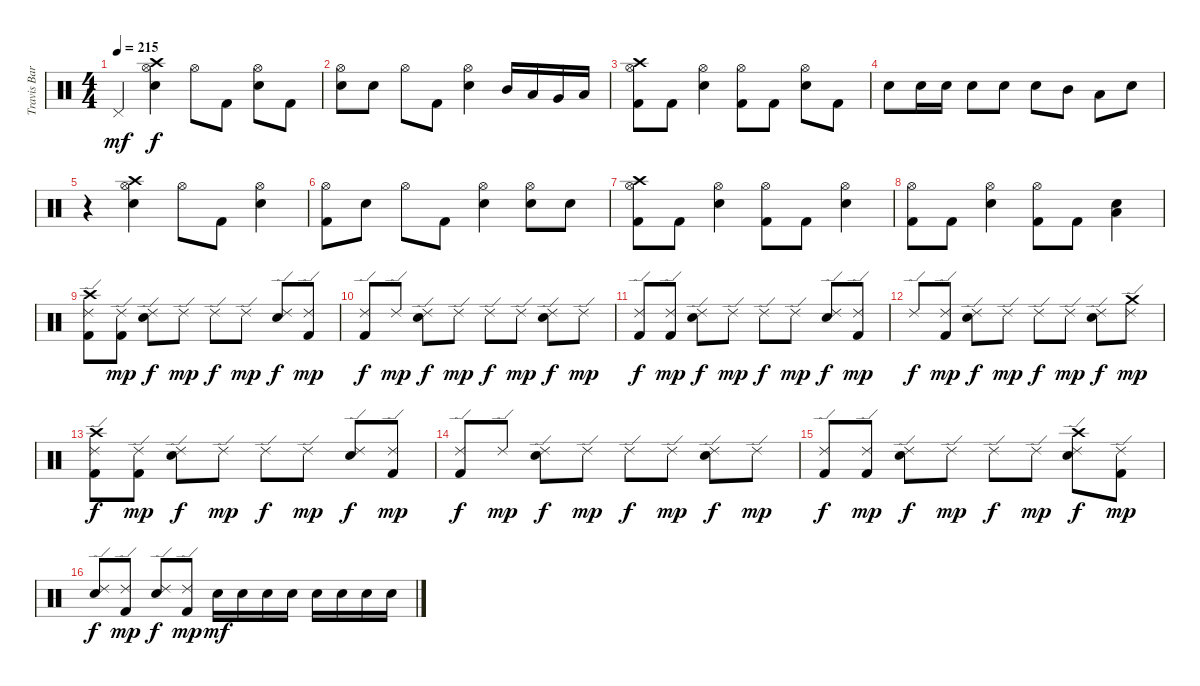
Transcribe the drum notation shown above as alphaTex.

\track ("Travis Barker" "Travis Bar") {instrument percussion}
\staff {score}
\articulation defaults
\ts (4 4)
\tempo 215
\clef neutral
\ks c "Pedal Hi-Hat (hit)".4{dy mf}
("Crash high (hit)" "Hi-Hat (open)" "Snare (hit) 2").4{dy f} "Hi-Hat (open)".8 "Kick (hit) 2".8 ("Hi-Hat (open)" "Snare (hit) 2").8 "Kick (hit) 2".8 |
("Hi-Hat (open)" "Snare (hit) 2").8 "Snare (hit) 2".8 "Hi-Hat (open)".8 "Kick (hit) 2".8 ("Hi-Hat (open)" "Snare (hit) 2").4 "Mid Tom (hit)".16 "Low Tom (hit)".16 "Very Low Tom (hit)".16 "Low Floor Tom (hit)".16 |
("Crash high (hit)" "Hi-Hat (open)" "Kick (hit) 2").8 "Kick (hit) 2".8 ("Hi-Hat (open)" "Snare (hit) 2").4 ("Hi-Hat (open)" "Kick (hit) 2").8 "Kick (hit) 2".8 ("Hi-Hat (open)" "Snare (hit) 2").8 "Kick (hit) 2".8 |
"Snare (hit) 2".8 "Snare (hit) 2".16 "Snare (hit) 2".16 "Snare (hit) 2".8 "Snare (hit) 2".8 "Snare (hit) 2".8 "Mid Tom (hit)".8 "Low Tom (hit)".8 "Snare (hit) 2".8 |
r.4 ("Crash high (hit)" "Hi-Hat (open)" "Snare (hit) 2").4 "Hi-Hat (open)".8 "Kick (hit) 2".8 ("Hi-Hat (open)" "Snare (hit) 2").4 |
("Hi-Hat (open)" "Kick (hit) 2").8 "Snare (hit) 2".8 "Hi-Hat (open)".8 "Kick (hit) 2".8 ("Hi-Hat (open)" "Snare (hit) 2").4 ("Hi-Hat (open)" "Snare (hit) 2").8 "Snare (hit) 2".8 |
("Crash high (hit)" "Hi-Hat (open)" "Kick (hit) 2").8 "Kick (hit) 2".8 ("Hi-Hat (open)" "Snare (hit) 2").4 ("Hi-Hat (open)" "Kick (hit) 2").8 "Kick (hit) 2".8 ("Hi-Hat (open)" "Snare (hit) 2").4 |
("Hi-Hat (open)" "Kick (hit) 2").8 "Kick (hit) 2".8 ("Hi-Hat (open)" "Snare (hit) 2").4 ("Hi-Hat (open)" "Kick (hit) 2").8 "Kick (hit) 2".8 ("Low Tom (hit)" "Snare (hit) 2").4 |
("Crash high (hit)" "Ride (edge) 2" "Kick (hit) 2").8 ("Ride (edge) 2" "Kick (hit) 2").8{dy mp} ("Ride (edge) 2" "Snare (hit) 2").8{dy f} "Ride (edge) 2".8{dy mp} "Ride (edge) 2".8{dy f} "Ride (edge) 2".8{dy mp} ("Ride (edge) 2" "Snare (hit) 2").8{dy f} ("Ride (edge) 2" "Kick (hit) 2").8{dy mp} |
("Ride (edge) 2" "Kick (hit) 2").8{dy f} "Ride (edge) 2".8{dy mp} ("Ride (edge) 2" "Snare (hit) 2").8{dy f} "Ride (edge) 2".8{dy mp} "Ride (edge) 2".8{dy f} "Ride (edge) 2".8{dy mp} ("Ride (edge) 2" "Snare (hit) 2").8{dy f} "Ride (edge) 2".8{dy mp} |
("Ride (edge) 2" "Kick (hit) 2").8{dy f} ("Ride (edge) 2" "Kick (hit) 2").8{dy mp} ("Ride (edge) 2" "Snare (hit) 2").8{dy f} "Ride (edge) 2".8{dy mp} "Ride (edge) 2".8{dy f} "Ride (edge) 2".8{dy mp} ("Ride (edge) 2" "Snare (hit) 2").8{dy f} ("Ride (edge) 2" "Kick (hit) 2").8{dy mp} |
"Ride (edge) 2".8{dy f} ("Ride (edge) 2" "Kick (hit) 2").8{dy mp} ("Ride (edge) 2" "Snare (hit) 2").8{dy f} "Ride (edge) 2".8{dy mp} "Ride (edge) 2".8{dy f} "Ride (edge) 2".8{dy mp} ("Ride (edge) 2" "Snare (hit) 2").8{dy f} ("Crash medium (hit)" "Ride (edge) 2").8{dy mp} |
("Crash high (hit)" "Ride (edge) 2" "Kick (hit) 2").8{dy f} ("Ride (edge) 2" "Kick (hit) 2").8{dy mp} ("Ride (edge) 2" "Snare (hit) 2").8{dy f} "Ride (edge) 2".8{dy mp} "Ride (edge) 2".8{dy f} "Ride (edge) 2".8{dy mp} ("Ride (edge) 2" "Snare (hit) 2").8{dy f} ("Ride (edge) 2" "Kick (hit) 2").8{dy mp} |
("Ride (edge) 2" "Kick (hit) 2").8{dy f} "Ride (edge) 2".8{dy mp} ("Ride (edge) 2" "Snare (hit) 2").8{dy f} "Ride (edge) 2".8{dy mp} "Ride (edge) 2".8{dy f} "Ride (edge) 2".8{dy mp} ("Ride (edge) 2" "Snare (hit) 2").8{dy f} "Ride (edge) 2".8{dy mp} |
("Ride (edge) 2" "Kick (hit) 2").8{dy f} ("Ride (edge) 2" "Kick (hit) 2").8{dy mp} ("Ride (edge) 2" "Snare (hit) 2").8{dy f} "Ride (edge) 2".8{dy mp} "Ride (edge) 2".8{dy f} "Ride (edge) 2".8{dy mp} ("Crash high (hit)" "Ride (edge) 2" "Snare (hit) 2").8{dy f} ("Ride (edge) 2" "Kick (hit) 2").8{dy mp} |
("Ride (edge) 2" "Snare (hit) 2").8{dy f} ("Ride (edge) 2" "Kick (hit) 2").8{dy mp} ("Ride (edge) 2" "Snare (hit) 2").8{dy f} ("Ride (edge) 2" "Kick (hit) 2").8{dy mp} "Snare (hit) 2".16{dy mf} "Snare (hit) 2".16 "Snare (hit) 2".16 "Snare (hit) 2".16 "Snare (hit) 2".16 "Snare (hit) 2".16 "Snare (hit) 2".16 "Snare (hit) 2".16
